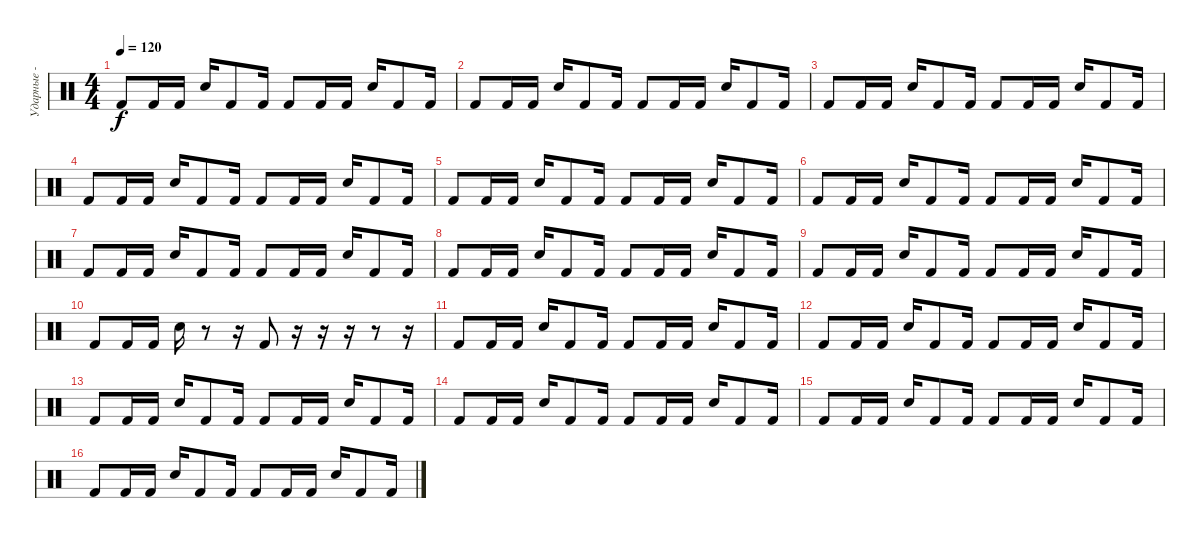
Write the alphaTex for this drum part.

\track ("Ударные - 1" "Ударные - ") {instrument percussion}
\staff {score}
\articulation defaults
\ts (4 4)
\tempo 120
\clef neutral
\ks c "Kick (hit) 2".8{dy f} "Kick (hit) 2".16 "Kick (hit) 2".16 "Electric Snare (hit)".16 "Kick (hit) 2".8 "Kick (hit) 2".16 "Kick (hit) 2".8 "Kick (hit) 2".16 "Kick (hit) 2".16 "Electric Snare (hit)".16 "Kick (hit) 2".8 "Kick (hit) 2".16
|
"Kick (hit) 2".8 "Kick (hit) 2".16 "Kick (hit) 2".16 "Electric Snare (hit)".16 "Kick (hit) 2".8 "Kick (hit) 2".16 "Kick (hit) 2".8 "Kick (hit) 2".16 "Kick (hit) 2".16 "Electric Snare (hit)".16 "Kick (hit) 2".8 "Kick (hit) 2".16 |
"Kick (hit) 2".8 "Kick (hit) 2".16 "Kick (hit) 2".16 "Electric Snare (hit)".16 "Kick (hit) 2".8 "Kick (hit) 2".16 "Kick (hit) 2".8 "Kick (hit) 2".16 "Kick (hit) 2".16 "Electric Snare (hit)".16 "Kick (hit) 2".8 "Kick (hit) 2".16 |
"Kick (hit) 2".8 "Kick (hit) 2".16 "Kick (hit) 2".16 "Electric Snare (hit)".16 "Kick (hit) 2".8 "Kick (hit) 2".16 "Kick (hit) 2".8 "Kick (hit) 2".16 "Kick (hit) 2".16 "Electric Snare (hit)".16 "Kick (hit) 2".8 "Kick (hit) 2".16 |
"Kick (hit) 2".8 "Kick (hit) 2".16 "Kick (hit) 2".16 "Electric Snare (hit)".16 "Kick (hit) 2".8 "Kick (hit) 2".16 "Kick (hit) 2".8 "Kick (hit) 2".16 "Kick (hit) 2".16 "Electric Snare (hit)".16 "Kick (hit) 2".8 "Kick (hit) 2".16 |
"Kick (hit) 2".8 "Kick (hit) 2".16 "Kick (hit) 2".16 "Electric Snare (hit)".16 "Kick (hit) 2".8 "Kick (hit) 2".16 "Kick (hit) 2".8 "Kick (hit) 2".16 "Kick (hit) 2".16 "Electric Snare (hit)".16 "Kick (hit) 2".8 "Kick (hit) 2".16 |
"Kick (hit) 2".8 "Kick (hit) 2".16 "Kick (hit) 2".16 "Electric Snare (hit)".16 "Kick (hit) 2".8 "Kick (hit) 2".16 "Kick (hit) 2".8 "Kick (hit) 2".16 "Kick (hit) 2".16 "Electric Snare (hit)".16 "Kick (hit) 2".8 "Kick (hit) 2".16 |
"Kick (hit) 2".8 "Kick (hit) 2".16 "Kick (hit) 2".16 "Electric Snare (hit)".16 "Kick (hit) 2".8 "Kick (hit) 2".16 "Kick (hit) 2".8 "Kick (hit) 2".16 "Kick (hit) 2".16 "Electric Snare (hit)".16 "Kick (hit) 2".8 "Kick (hit) 2".16 |
"Kick (hit) 2".8 "Kick (hit) 2".16 "Kick (hit) 2".16 "Electric Snare (hit)".16 "Kick (hit) 2".8 "Kick (hit) 2".16 "Kick (hit) 2".8 "Kick (hit) 2".16 "Kick (hit) 2".16 "Electric Snare (hit)".16 "Kick (hit) 2".8 "Kick (hit) 2".16 |
"Kick (hit) 2".8 "Kick (hit) 2".16 "Kick (hit) 2".16 "Electric Snare (hit)".16 r.8 r.16 "Kick (hit) 2".8 r.16 r.16 r.16 r.8 r.16 |
"Kick (hit) 2".8 "Kick (hit) 2".16 "Kick (hit) 2".16 "Electric Snare (hit)".16 "Kick (hit) 2".8 "Kick (hit) 2".16 "Kick (hit) 2".8 "Kick (hit) 2".16 "Kick (hit) 2".16 "Electric Snare (hit)".16 "Kick (hit) 2".8 "Kick (hit) 2".16 |
"Kick (hit) 2".8 "Kick (hit) 2".16 "Kick (hit) 2".16 "Electric Snare (hit)".16 "Kick (hit) 2".8 "Kick (hit) 2".16 "Kick (hit) 2".8 "Kick (hit) 2".16 "Kick (hit) 2".16 "Electric Snare (hit)".16 "Kick (hit) 2".8 "Kick (hit) 2".16 |
"Kick (hit) 2".8 "Kick (hit) 2".16 "Kick (hit) 2".16 "Electric Snare (hit)".16 "Kick (hit) 2".8 "Kick (hit) 2".16 "Kick (hit) 2".8 "Kick (hit) 2".16 "Kick (hit) 2".16 "Electric Snare (hit)".16 "Kick (hit) 2".8 "Kick (hit) 2".16 |
"Kick (hit) 2".8 "Kick (hit) 2".16 "Kick (hit) 2".16 "Electric Snare (hit)".16 "Kick (hit) 2".8 "Kick (hit) 2".16 "Kick (hit) 2".8 "Kick (hit) 2".16 "Kick (hit) 2".16 "Electric Snare (hit)".16 "Kick (hit) 2".8 "Kick (hit) 2".16 |
"Kick (hit) 2".8 "Kick (hit) 2".16 "Kick (hit) 2".16 "Electric Snare (hit)".16 "Kick (hit) 2".8 "Kick (hit) 2".16 "Kick (hit) 2".8 "Kick (hit) 2".16 "Kick (hit) 2".16 "Electric Snare (hit)".16 "Kick (hit) 2".8 "Kick (hit) 2".16 |
"Kick (hit) 2".8 "Kick (hit) 2".16 "Kick (hit) 2".16 "Electric Snare (hit)".16 "Kick (hit) 2".8 "Kick (hit) 2".16 "Kick (hit) 2".8 "Kick (hit) 2".16 "Kick (hit) 2".16 "Electric Snare (hit)".16 "Kick (hit) 2".8 "Kick (hit) 2".16
